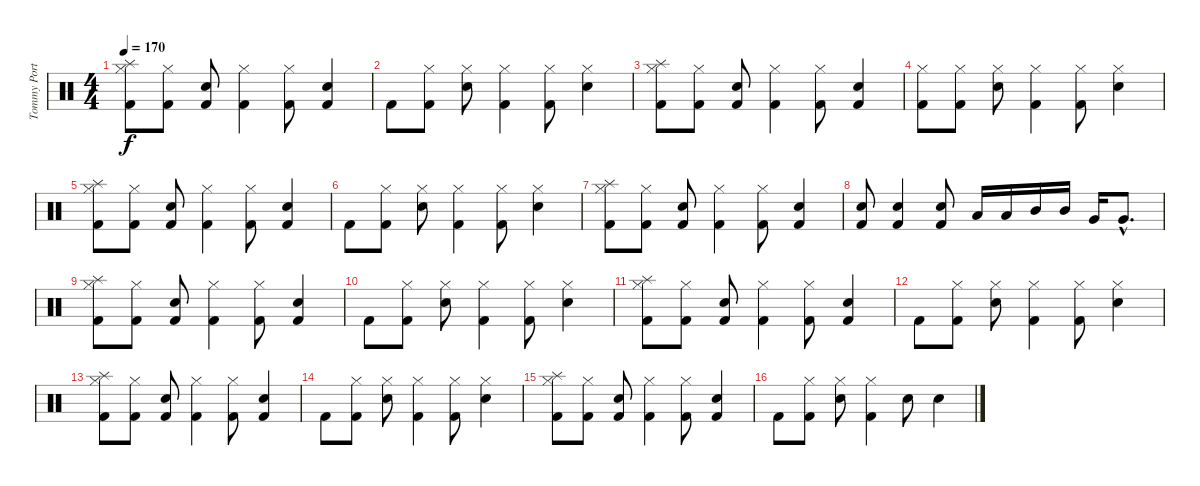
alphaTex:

\track ("Tommy Portimo" "Tommy Port") {instrument percussion}
\staff {score}
\articulation defaults
\ts (4 4)
\tempo 170
\clef neutral
\ks c
("Splash (hit)" "Kick (hit) 2" "Hi-Hat (closed)").8{dy f} ("Kick (hit) 2" "Hi-Hat (closed)").8 ("Electric Snare (hit)" "Kick (hit) 2").8 ("Kick (hit) 2" "Hi-Hat (closed)").4 ("Kick (hit) 2" "Hi-Hat (closed)").8 ("Electric Snare (hit)" "Kick (hit) 2").4 |
"Kick (hit) 2".8 ("Kick (hit) 2" "Hi-Hat (closed)").8 ("Electric Snare (hit)" "Hi-Hat (closed)").8 ("Kick (hit) 2" "Hi-Hat (closed)").4 ("Kick (hit) 2" "Hi-Hat (closed)").8 ("Electric Snare (hit)" "Hi-Hat (closed)").4 |
("Splash (hit)" "Kick (hit) 2" "Hi-Hat (closed)").8 ("Kick (hit) 2" "Hi-Hat (closed)").8 ("Electric Snare (hit)" "Kick (hit) 2").8 ("Kick (hit) 2" "Hi-Hat (closed)").4 ("Kick (hit) 2" "Hi-Hat (closed)").8 ("Electric Snare (hit)" "Kick (hit) 2").4 |
("Kick (hit) 2" "Hi-Hat (closed)").8 ("Kick (hit) 2" "Hi-Hat (closed)").8 ("Electric Snare (hit)" "Hi-Hat (closed)").8 ("Kick (hit) 2" "Hi-Hat (closed)").4 ("Kick (hit) 2" "Hi-Hat (closed)").8 ("Electric Snare (hit)" "Hi-Hat (closed)").4 |
("Splash (hit)" "Kick (hit) 2" "Hi-Hat (closed)").8 ("Kick (hit) 2" "Hi-Hat (closed)").8 ("Electric Snare (hit)" "Kick (hit) 2").8 ("Kick (hit) 2" "Hi-Hat (closed)").4 ("Kick (hit) 2" "Hi-Hat (closed)").8 ("Electric Snare (hit)" "Kick (hit) 2").4 |
"Kick (hit) 2".8 ("Kick (hit) 2" "Hi-Hat (closed)").8 ("Electric Snare (hit)" "Hi-Hat (closed)").8 ("Kick (hit) 2" "Hi-Hat (closed)").4 ("Kick (hit) 2" "Hi-Hat (closed)").8 ("Electric Snare (hit)" "Hi-Hat (closed)").4 |
("Splash (hit)" "Kick (hit) 2" "Hi-Hat (closed)").8 ("Kick (hit) 2" "Hi-Hat (closed)").8 ("Electric Snare (hit)" "Kick (hit) 2").8 ("Kick (hit) 2" "Hi-Hat (closed)").4 ("Kick (hit) 2" "Hi-Hat (closed)").8 ("Electric Snare (hit)" "Kick (hit) 2").4 |
("Kick (hit) 2" "Electric Snare (hit)").8 ("Kick (hit) 2" "Electric Snare (hit)").4 ("Kick (hit) 2" "Electric Snare (hit)").8 "Low Tom (hit)".16 "Low Tom (hit)".16 "Mid Tom (hit)".16 "Mid Tom (hit)".16 "Very Low Tom (hit)".16 "Very Low Tom (hit)"{hac}.8{d} |
("Splash (hit)" "Kick (hit) 2" "Hi-Hat (closed)").8 ("Kick (hit) 2" "Hi-Hat (closed)").8 ("Electric Snare (hit)" "Kick (hit) 2").8 ("Kick (hit) 2" "Hi-Hat (closed)").4 ("Kick (hit) 2" "Hi-Hat (closed)").8 ("Electric Snare (hit)" "Kick (hit) 2").4 |
"Kick (hit) 2".8 ("Kick (hit) 2" "Hi-Hat (closed)").8 ("Electric Snare (hit)" "Hi-Hat (closed)").8 ("Kick (hit) 2" "Hi-Hat (closed)").4 ("Kick (hit) 2" "Hi-Hat (closed)").8 ("Electric Snare (hit)" "Hi-Hat (closed)").4 |
("Splash (hit)" "Kick (hit) 2" "Hi-Hat (closed)").8 ("Kick (hit) 2" "Hi-Hat (closed)").8 ("Electric Snare (hit)" "Kick (hit) 2").8 ("Kick (hit) 2" "Hi-Hat (closed)").4 ("Kick (hit) 2" "Hi-Hat (closed)").8 ("Electric Snare (hit)" "Kick (hit) 2").4 |
"Kick (hit) 2".8 ("Kick (hit) 2" "Hi-Hat (closed)").8 ("Electric Snare (hit)" "Hi-Hat (closed)").8 ("Kick (hit) 2" "Hi-Hat (closed)").4 ("Kick (hit) 2" "Hi-Hat (closed)").8 ("Electric Snare (hit)" "Hi-Hat (closed)").4 |
("Splash (hit)" "Kick (hit) 2" "Hi-Hat (closed)").8 ("Kick (hit) 2" "Hi-Hat (closed)").8 ("Electric Snare (hit)" "Kick (hit) 2").8 ("Kick (hit) 2" "Hi-Hat (closed)").4 ("Kick (hit) 2" "Hi-Hat (closed)").8 ("Electric Snare (hit)" "Kick (hit) 2").4 |
"Kick (hit) 2".8 ("Kick (hit) 2" "Hi-Hat (closed)").8 ("Electric Snare (hit)" "Hi-Hat (closed)").8 ("Kick (hit) 2" "Hi-Hat (closed)").4 ("Kick (hit) 2" "Hi-Hat (closed)").8 ("Electric Snare (hit)" "Hi-Hat (closed)").4 |
("Splash (hit)" "Kick (hit) 2" "Hi-Hat (closed)").8 ("Kick (hit) 2" "Hi-Hat (closed)").8 ("Electric Snare (hit)" "Kick (hit) 2").8 ("Kick (hit) 2" "Hi-Hat (closed)").4 ("Kick (hit) 2" "Hi-Hat (closed)").8 ("Electric Snare (hit)" "Kick (hit) 2").4 |
"Kick (hit) 2".8 ("Kick (hit) 2" "Hi-Hat (closed)").8 ("Electric Snare (hit)" "Hi-Hat (closed)").8 ("Kick (hit) 2" "Hi-Hat (closed)").4 "Electric Snare (hit)".8 "Electric Snare (hit)".4
